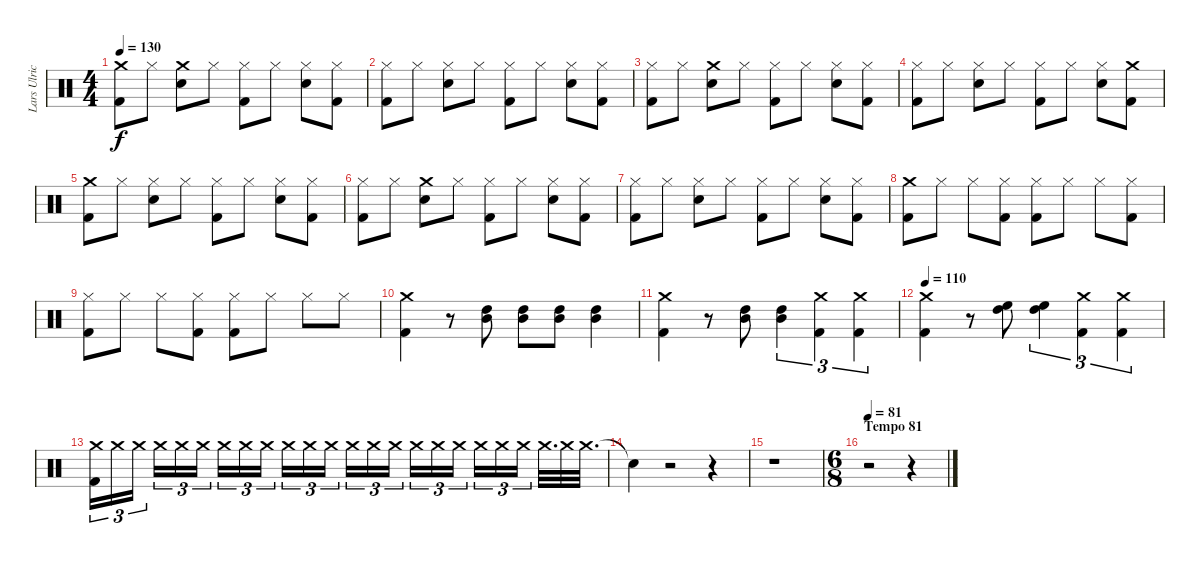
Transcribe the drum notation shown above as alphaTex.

\track ("Lars Ulrich (Drums)" "Lars Ulric") {instrument percussion}
\staff {score}
\articulation defaults
\ts (4 4)
\tempo 130
\clef neutral
\ks c
("Crash medium (hit)" "Kick (hit) 2").8{dy f} "Hi-Hat (closed)".8 ("Crash medium (hit)" "Snare (hit) 2").8 "Hi-Hat (closed)".8 ("Hi-Hat (closed)" "Kick (hit) 2").8 "Hi-Hat (closed)".8 ("Snare (hit) 2" "Hi-Hat (closed)").8 ("Kick (hit) 2" "Hi-Hat (closed)").8 |
("Hi-Hat (closed)" "Kick (hit) 2").8 "Hi-Hat (closed)".8 ("Snare (hit) 2" "Hi-Hat (closed)").8 "Hi-Hat (closed)".8 ("Hi-Hat (closed)" "Kick (hit) 2").8 "Hi-Hat (closed)".8 ("Snare (hit) 2" "Hi-Hat (closed)").8 ("Hi-Hat (closed)" "Kick (hit) 2").8 |
("Hi-Hat (closed)" "Kick (hit) 2").8 "Hi-Hat (closed)".8 ("Crash medium (hit)" "Snare (hit) 2").8 "Hi-Hat (closed)".8 ("Hi-Hat (closed)" "Kick (hit) 2").8 "Hi-Hat (closed)".8 ("Snare (hit) 2" "Hi-Hat (closed)").8 ("Kick (hit) 2" "Hi-Hat (closed)").8 |
("Kick (hit) 2" "Hi-Hat (closed)").8 "Hi-Hat (closed)".8 ("Snare (hit) 2" "Hi-Hat (closed)").8 "Hi-Hat (closed)".8 ("Kick (hit) 2" "Hi-Hat (closed)").8 "Hi-Hat (closed)".8 ("Snare (hit) 2" "Hi-Hat (closed)").8 ("Crash medium (hit)" "Kick (hit) 2").8 |
("Crash medium (hit)" "Kick (hit) 2").8 "Hi-Hat (closed)".8 ("Snare (hit) 2" "Hi-Hat (closed)").8 "Hi-Hat (closed)".8 ("Hi-Hat (closed)" "Kick (hit) 2").8 "Hi-Hat (closed)".8 ("Snare (hit) 2" "Hi-Hat (closed)").8 ("Kick (hit) 2" "Hi-Hat (closed)").8 |
("Hi-Hat (closed)" "Kick (hit) 2").8 "Hi-Hat (closed)".8 ("Crash medium (hit)" "Snare (hit) 2").8 "Hi-Hat (closed)".8 ("Hi-Hat (closed)" "Kick (hit) 2").8 "Hi-Hat (closed)".8 ("Snare (hit) 2" "Hi-Hat (closed)").8 ("Hi-Hat (closed)" "Kick (hit) 2").8 |
("Hi-Hat (closed)" "Kick (hit) 2").8 "Hi-Hat (closed)".8 ("Hi-Hat (closed)" "Snare (hit) 2").8 "Hi-Hat (closed)".8 ("Hi-Hat (closed)" "Kick (hit) 2").8 "Hi-Hat (closed)".8 ("Snare (hit) 2" "Hi-Hat (closed)").8 ("Kick (hit) 2" "Hi-Hat (closed)").8 |
("Kick (hit) 2" "Crash medium (hit)").8 "Hi-Hat (closed)".8 "Hi-Hat (closed)".8 ("Kick (hit) 2" "Hi-Hat (closed)").8 ("Kick (hit) 2" "Hi-Hat (closed)").8 "Hi-Hat (closed)".8 "Hi-Hat (closed)".8 ("Kick (hit) 2" "Hi-Hat (closed)").8 |
("Hi-Hat (closed)" "Kick (hit) 2").8 "Hi-Hat (closed)".8 "Hi-Hat (closed)".8 ("Kick (hit) 2" "Hi-Hat (closed)").8 ("Hi-Hat (closed)" "Kick (hit) 2").8 "Hi-Hat (closed)".8 "Hi-Hat (closed)".8 "Hi-Hat (closed)".8 |
("Kick (hit) 2" "Crash medium (hit)").4 r.8 ("High Tom (hit)" "Mid Tom (hit)").8 ("High Tom (hit)" "Mid Tom (hit)").8 ("High Tom (hit)" "Mid Tom (hit)").8 ("High Tom (hit)" "Mid Tom (hit)").4 |
("Kick (hit) 2" "Crash medium (hit)").4 r.8 ("Mid Tom (hit)" "High Tom (hit)").8 ("High Tom (hit)" "Mid Tom (hit)").4{tu (3 2)} ("Kick (hit) 2" "Crash medium (hit)").4{tu (3 2)} ("Kick (hit) 2" "Crash medium (hit)").4{tu (3 2)} |
\tempo 110
("Crash medium (hit)" "Kick (hit) 2").4 r.8 ("High Floor Tom (hit)" "High Tom (hit)").8 ("High Tom (hit)" "High Floor Tom (hit)").4{tu (3 2)} ("Kick (hit) 2" "Crash medium (hit)").4{tu (3 2)} ("Kick (hit) 2" "Crash medium (hit)").4{tu (3 2)} |
("Kick (hit) 2" "Crash medium (hit)").16{tu (3 2)} "Crash medium (hit)".16{tu (3 2)} "Crash medium (hit)".16{tu (3 2)} "Crash medium (hit)".16{tu (3 2)} "Crash medium (hit)".16{tu (3 2)} "Crash medium (hit)".16{tu (3 2)} "Crash medium (hit)".16{tu (3 2)} "Crash medium (hit)".16{tu (3 2)} "Crash medium (hit)".16{tu (3 2)} "Crash medium (hit)".16{tu (3 2)} "Crash medium (hit)".16{tu (3 2)} "Crash medium (hit)".16{tu (3 2)} "Crash medium (hit)".16{tu (3 2)} "Crash medium (hit)".16{tu (3 2)} "Crash medium (hit)".16{tu (3 2)} "Crash medium (hit)".16{tu (3 2)} "Crash medium (hit)".16{tu (3 2)} "Crash medium (hit)".16{tu (3 2)} "Crash medium (hit)".16{tu (3 2)} "Crash medium (hit)".16{tu (3 2)} "Crash medium (hit)".16{tu (3 2)} "Crash medium (hit)".32{d} "Crash medium (hit)".32 "Crash medium (hit)".32{d} |
"Snare (hit)"{t}.4 r.2 r.4 |
r.1 |
\ts (6 8)
\section ("" "Tempo 81")
\tempo 81
r.2 r.4
